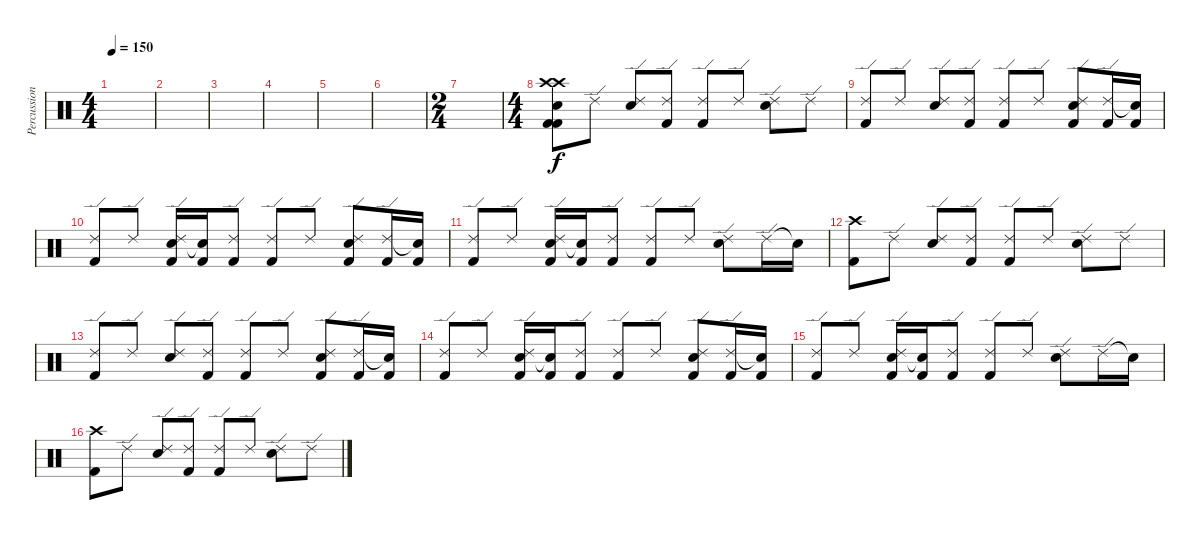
\track ("Percussion" "Percussion") {instrument percussion}
\staff {score}
\articulation defaults
\ts (4 4)
\tempo 150
\clef neutral
\ks c
|
|
|
|
|
|
\ts (2 4)
|
\ts (4 4)
("Crash high (hit)" "Crash high (hit)" "Kick (hit) 2" "Kick (hit) 2" "Snare (hit) 2").8 "Ride (edge) 2".8 ("Ride (edge) 2" "Electric Snare (hit)").8 ("Ride (edge) 2" "Kick (hit) 2").8 ("Ride (edge) 2" "Kick (hit) 2").8 "Ride (edge) 2".8 ("Ride (edge) 2" "Electric Snare (hit)").8 "Ride (edge) 2".8 |
("Ride (edge) 2" "Kick (hit) 2").8 "Ride (edge) 2".8 ("Ride (edge) 2" "Electric Snare (hit)").8 ("Ride (edge) 2" "Kick (hit) 2").8 ("Ride (edge) 2" "Kick (hit) 2").8 "Ride (edge) 2".8 ("Electric Snare (hit)" "Ride (edge) 2" "Kick (hit) 2").8 ("Ride (edge) 2" "Kick (hit) 2").16 ("Snare (hit)"{t} "Kick (hit) 2").16 |
("Ride (edge) 2" "Kick (hit) 2").8 "Ride (edge) 2".8 ("Electric Snare (hit)" "Ride (edge) 2" "Kick (hit) 2").16 ("Snare (hit)"{t} "Kick (hit) 2").16 ("Ride (edge) 2" "Kick (hit) 2").8 ("Ride (edge) 2" "Kick (hit) 2").8 "Ride (edge) 2".8 ("Electric Snare (hit)" "Ride (edge) 2" "Kick (hit) 2").8 ("Ride (edge) 2" "Kick (hit) 2").16 ("Snare (hit)"{t} "Kick (hit) 2").16 |
("Ride (edge) 2" "Kick (hit) 2").8 "Ride (edge) 2".8 ("Electric Snare (hit)" "Ride (edge) 2" "Kick (hit) 2").16 ("Snare (hit)"{t} "Kick (hit) 2").16 ("Ride (edge) 2" "Kick (hit) 2").8 ("Ride (edge) 2" "Kick (hit) 2").8 "Ride (edge) 2".8 ("Electric Snare (hit)" "Ride (edge) 2").8 "Ride (edge) 2".16 "Snare (hit)"{t}.16 |
("Crash high (hit)" "Kick (hit) 2").8 "Ride (edge) 2".8 ("Ride (edge) 2" "Electric Snare (hit)").8 ("Ride (edge) 2" "Kick (hit) 2").8 ("Ride (edge) 2" "Kick (hit) 2").8 "Ride (edge) 2".8 ("Ride (edge) 2" "Electric Snare (hit)").8 "Ride (edge) 2".8 |
("Ride (edge) 2" "Kick (hit) 2").8 "Ride (edge) 2".8 ("Ride (edge) 2" "Electric Snare (hit)").8 ("Ride (edge) 2" "Kick (hit) 2").8 ("Ride (edge) 2" "Kick (hit) 2").8 "Ride (edge) 2".8 ("Electric Snare (hit)" "Ride (edge) 2" "Kick (hit) 2").8 ("Ride (edge) 2" "Kick (hit) 2").16 ("Snare (hit)"{t} "Kick (hit) 2").16 |
("Ride (edge) 2" "Kick (hit) 2").8 "Ride (edge) 2".8 ("Electric Snare (hit)" "Ride (edge) 2" "Kick (hit) 2").16 ("Snare (hit)"{t} "Kick (hit) 2").16 ("Ride (edge) 2" "Kick (hit) 2").8 ("Ride (edge) 2" "Kick (hit) 2").8 "Ride (edge) 2".8 ("Electric Snare (hit)" "Ride (edge) 2" "Kick (hit) 2").8 ("Ride (edge) 2" "Kick (hit) 2").16 ("Snare (hit)"{t} "Kick (hit) 2").16 |
("Ride (edge) 2" "Kick (hit) 2").8 "Ride (edge) 2".8 ("Electric Snare (hit)" "Ride (edge) 2" "Kick (hit) 2").16 ("Snare (hit)"{t} "Kick (hit) 2").16 ("Ride (edge) 2" "Kick (hit) 2").8 ("Ride (edge) 2" "Kick (hit) 2").8 "Ride (edge) 2".8 ("Electric Snare (hit)" "Ride (edge) 2").8 "Ride (edge) 2".16 "Snare (hit)"{t}.16 |
("Crash high (hit)" "Kick (hit) 2").8 "Ride (edge) 2".8 ("Ride (edge) 2" "Electric Snare (hit)").8 ("Ride (edge) 2" "Kick (hit) 2").8 ("Ride (edge) 2" "Kick (hit) 2").8 "Ride (edge) 2".8 ("Ride (edge) 2" "Electric Snare (hit)").8 "Ride (edge) 2".8
